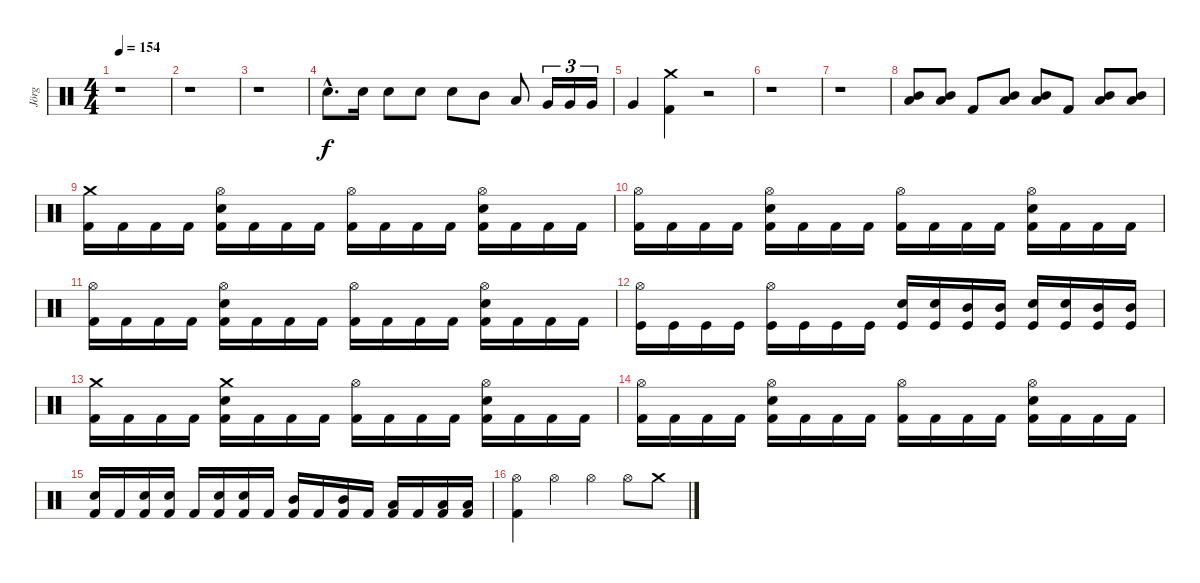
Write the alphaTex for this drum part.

\track ("Jörg" "Jörg") {instrument percussion}
\staff {score}
\articulation defaults
\ts (4 4)
\tempo 154
\clef neutral
\ks c
r.1{dy f} |
r.1 |
r.1 |
"Snare (hit) 2"{hac}.8{d} "Snare (hit) 2".16 "Snare (hit) 2".8 "Snare (hit) 2".8 "Snare (hit) 2".8 "Mid Tom (hit)".8 "Low Tom (hit)".8 "Very Low Tom (hit)".16{tu (3 2)} "Very Low Tom (hit)".16{tu (3 2)} "Very Low Tom (hit)".16{tu (3 2)} |
"Very Low Tom (hit)".4 ("Kick (hit) 2" "Crash medium (hit)").4 r.2 |
r.1 |
r.1 |
("Mid Tom (hit)" "Low Tom (hit)").8 ("Mid Tom (hit)" "Low Tom (hit)").8 "Kick (hit) 2".8 ("Mid Tom (hit)" "Low Tom (hit)").8 ("Mid Tom (hit)" "Low Tom (hit)").8 "Kick (hit) 2".8 ("Mid Tom (hit)" "Low Tom (hit)").8 ("Mid Tom (hit)" "Low Tom (hit)").8 |
("Crash medium (hit)" "Kick (hit) 2").16 "Kick (hit) 2".16 "Kick (hit) 2".16 "Kick (hit) 2".16 ("Snare (hit) 2" "Hi-Hat (open)" "Kick (hit) 2").16 "Kick (hit) 2".16 "Kick (hit) 2".16 "Kick (hit) 2".16 ("Hi-Hat (open)" "Kick (hit) 2").16 "Kick (hit) 2".16 "Kick (hit) 2".16 "Kick (hit) 2".16 ("Snare (hit) 2" "Hi-Hat (open)" "Kick (hit) 2").16 "Kick (hit) 2".16 "Kick (hit) 2".16 "Kick (hit) 2".16 |
("Hi-Hat (open)" "Kick (hit) 2").16 "Kick (hit) 2".16 "Kick (hit) 2".16 "Kick (hit) 2".16 ("Snare (hit) 2" "Hi-Hat (open)" "Kick (hit) 2").16 "Kick (hit) 2".16 "Kick (hit) 2".16 "Kick (hit) 2".16 ("Hi-Hat (open)" "Kick (hit) 2").16 "Kick (hit) 2".16 "Kick (hit) 2".16 "Kick (hit) 2".16 ("Snare (hit) 2" "Hi-Hat (open)" "Kick (hit) 2").16 "Kick (hit) 2".16 "Kick (hit) 2".16 "Kick (hit) 2".16 |
("Hi-Hat (open)" "Kick (hit) 2").16 "Kick (hit) 2".16 "Kick (hit) 2".16 "Kick (hit) 2".16 ("Snare (hit) 2" "Hi-Hat (open)" "Kick (hit) 2").16 "Kick (hit) 2".16 "Kick (hit) 2".16 "Kick (hit) 2".16 ("Hi-Hat (open)" "Kick (hit) 2").16 "Kick (hit) 2".16 "Kick (hit) 2".16 "Kick (hit) 2".16 ("Snare (hit) 2" "Hi-Hat (open)" "Kick (hit) 2").16 "Kick (hit) 2".16 "Kick (hit) 2".16 "Kick (hit) 2".16 |
("Hi-Hat (open)" "Kick (hit)").16 "Kick (hit)".16 "Kick (hit)".16 "Kick (hit)".16 ("Hi-Hat (open)" "Kick (hit)").16 "Kick (hit)".16 "Kick (hit)".16 "Kick (hit)".16 ("Snare (hit) 2" "Kick (hit)").16 ("Snare (hit) 2" "Kick (hit)").16 ("Mid Tom (hit)" "Kick (hit)").16 ("Mid Tom (hit)" "Kick (hit)").16 ("Snare (hit) 2" "Kick (hit)").16 ("Snare (hit) 2" "Kick (hit)").16 ("Mid Tom (hit)" "Kick (hit)").16 ("Mid Tom (hit)" "Kick (hit)").16 |
("Crash medium (hit)" "Kick (hit) 2").16 "Kick (hit) 2".16 "Kick (hit) 2".16 "Kick (hit) 2".16 ("Crash medium (hit)" "Snare (hit) 2" "Kick (hit) 2").16 "Kick (hit) 2".16 "Kick (hit) 2".16 "Kick (hit) 2".16 ("Hi-Hat (open)" "Kick (hit) 2").16 "Kick (hit) 2".16 "Kick (hit) 2".16 "Kick (hit) 2".16 ("Snare (hit) 2" "Hi-Hat (open)" "Kick (hit) 2").16 "Kick (hit) 2".16 "Kick (hit) 2".16 "Kick (hit) 2".16 |
("Hi-Hat (open)" "Kick (hit) 2").16 "Kick (hit) 2".16 "Kick (hit) 2".16 "Kick (hit) 2".16 ("Snare (hit) 2" "Hi-Hat (open)" "Kick (hit) 2").16 "Kick (hit) 2".16 "Kick (hit) 2".16 "Kick (hit) 2".16 ("Hi-Hat (open)" "Kick (hit) 2").16 "Kick (hit) 2".16 "Kick (hit) 2".16 "Kick (hit) 2".16 ("Snare (hit) 2" "Hi-Hat (open)" "Kick (hit) 2").16 "Kick (hit) 2".16 "Kick (hit) 2".16 "Kick (hit) 2".16 |
("Snare (hit) 2" "Kick (hit) 2").16 "Kick (hit) 2".16 ("Snare (hit) 2" "Kick (hit) 2").16 ("Snare (hit) 2" "Kick (hit) 2").16 "Kick (hit) 2".16 ("Snare (hit) 2" "Kick (hit) 2").16 ("Snare (hit) 2" "Kick (hit) 2").16 "Kick (hit) 2".16 ("Mid Tom (hit)" "Kick (hit) 2").16 "Kick (hit) 2".16 ("Mid Tom (hit)" "Kick (hit) 2").16 "Kick (hit) 2".16 ("Low Tom (hit)" "Kick (hit) 2").16 "Kick (hit) 2".16 ("Low Tom (hit)" "Kick (hit) 2").16 ("Low Tom (hit)" "Kick (hit) 2").16 |
("Kick (hit) 2" "Hi-Hat (open)").4 "Hi-Hat (open)".4 "Hi-Hat (open)".4 "Hi-Hat (open)".8 "Crash medium (hit)".8
